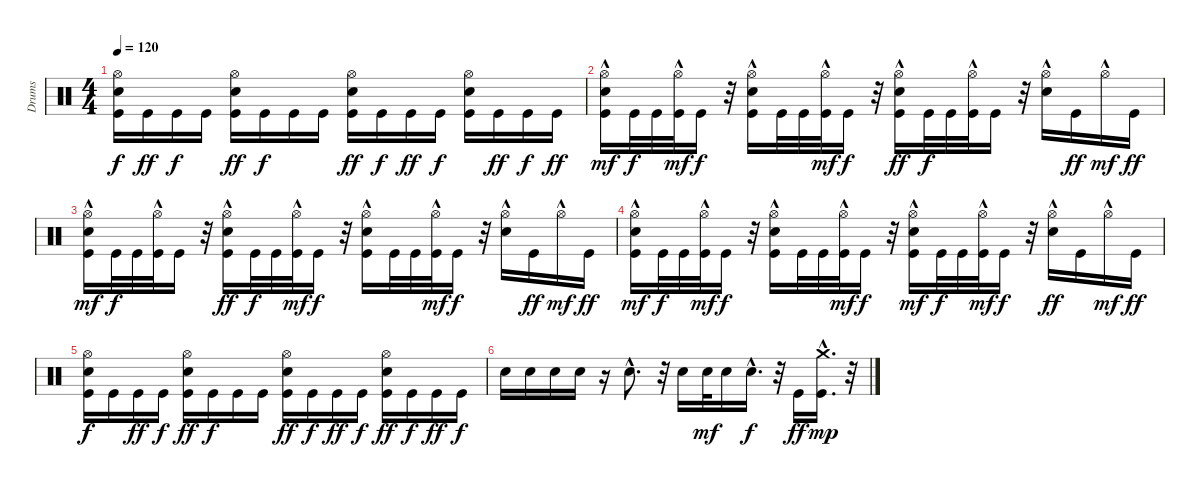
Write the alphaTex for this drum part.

\track ("Drums" "Drums") {instrument percussion}
\staff {score}
\articulation defaults
\ts (4 4)
\tempo 120
\clef neutral
\ks c
("Hi-Hat (open)" "Electric Snare (hit)" "Kick (hit)").16{dy f} "Kick (hit)".16{dy ff} "Kick (hit)".16{dy f} "Kick (hit)".16 ("Hi-Hat (open)" "Electric Snare (hit)" "Kick (hit)").16{dy ff} "Kick (hit)".16{dy f} "Kick (hit)".16 "Kick (hit)".16 ("Hi-Hat (open)" "Electric Snare (hit)" "Kick (hit)").16{dy ff} "Kick (hit)".16{dy f} "Kick (hit)".16{dy ff} "Kick (hit)".16{dy f} ("Hi-Hat (open)" "Electric Snare (hit)" "Kick (hit)").16 "Kick (hit)".16{dy ff} "Kick (hit)".16{dy f} "Kick (hit)".16{dy ff} |
("Hi-Hat (open)"{hac} "Electric Snare (hit)"{hac} "Kick (hit)").16{dy mf} "Kick (hit)".32{dy f} "Kick (hit)".32 ("Hi-Hat (open)"{hac} "Kick (hit)").32{dy mf} "Kick (hit)".16{dy f} r.32 ("Hi-Hat (open)"{hac} "Electric Snare (hit)"{hac} "Kick (hit)").16 "Kick (hit)".32 "Kick (hit)".32 ("Hi-Hat (open)"{hac} "Kick (hit)").32{dy mf} "Kick (hit)".16{dy f} r.32 ("Hi-Hat (open)"{hac} "Electric Snare (hit)"{hac} "Kick (hit)").16{dy ff} "Kick (hit)".32{dy f} "Kick (hit)".32 ("Hi-Hat (open)"{hac} "Kick (hit)").32 "Kick (hit)".16 r.32 ("Hi-Hat (open)"{hac} "Electric Snare (hit)"{hac}).16 "Kick (hit)".16{dy ff} "Hi-Hat (open)"{hac}.16{dy mf} "Kick (hit)".16{dy ff} |
("Hi-Hat (open)"{hac} "Electric Snare (hit)"{hac} "Kick (hit)").16{dy mf} "Kick (hit)".32{dy f} "Kick (hit)".32 ("Hi-Hat (open)"{hac} "Kick (hit)").32 "Kick (hit)".16 r.32 ("Hi-Hat (open)"{hac} "Electric Snare (hit)"{hac} "Kick (hit)").16{dy ff} "Kick (hit)".32{dy f} "Kick (hit)".32 ("Hi-Hat (open)"{hac} "Kick (hit)").32{dy mf} "Kick (hit)".16{dy f} r.32 ("Hi-Hat (open)"{hac} "Electric Snare (hit)"{hac} "Kick (hit)").16 "Kick (hit)".32 "Kick (hit)".32 ("Hi-Hat (open)"{hac} "Kick (hit)").32{dy mf} "Kick (hit)".16{dy f} r.32 ("Hi-Hat (open)"{hac} "Electric Snare (hit)"{hac}).16 "Kick (hit)".16{dy ff} "Hi-Hat (open)"{hac}.16{dy mf} "Kick (hit)".16{dy ff} |
("Hi-Hat (open)"{hac} "Electric Snare (hit)"{hac} "Kick (hit)").16{dy mf} "Kick (hit)".32{dy f} "Kick (hit)".32 ("Hi-Hat (open)"{hac} "Kick (hit)").32{dy mf} "Kick (hit)".16{dy f} r.32 ("Hi-Hat (open)"{hac} "Electric Snare (hit)"{hac} "Kick (hit)").16 "Kick (hit)".32 "Kick (hit)".32 ("Hi-Hat (open)"{hac} "Kick (hit)").32{dy mf} "Kick (hit)".16{dy f} r.32 ("Hi-Hat (open)"{hac} "Electric Snare (hit)"{hac} "Kick (hit)").16{dy mf} "Kick (hit)".32{dy f} "Kick (hit)".32 ("Hi-Hat (open)"{hac} "Kick (hit)").32{dy mf} "Kick (hit)".16{dy f} r.32 ("Hi-Hat (open)"{hac} "Electric Snare (hit)"{hac}).16{dy ff} "Kick (hit)".16 "Hi-Hat (open)"{hac}.16{dy mf} "Kick (hit)".16{dy ff} |
("Hi-Hat (open)" "Electric Snare (hit)" "Kick (hit)").16{dy f} "Kick (hit)".16 "Kick (hit)".16{dy ff} "Kick (hit)".16{dy f} ("Hi-Hat (open)" "Electric Snare (hit)" "Kick (hit)").16{dy ff} "Kick (hit)".16{dy f} "Kick (hit)".16 "Kick (hit)".16 ("Hi-Hat (open)" "Electric Snare (hit)" "Kick (hit)").16{dy ff} "Kick (hit)".16{dy f} "Kick (hit)".16{dy ff} "Kick (hit)".16{dy f} ("Hi-Hat (open)" "Electric Snare (hit)" "Kick (hit)").16{dy ff} "Kick (hit)".16{dy f} "Kick (hit)".16{dy ff} "Kick (hit)".16{dy f} |
"Electric Snare (hit)".16 "Electric Snare (hit)".16 "Electric Snare (hit)".16 "Electric Snare (hit)".16 r.16 "Electric Snare (hit)"{hac}.8{d} r.32 "Electric Snare (hit)".16 "Electric Snare (hit)".32{dy mf} "Electric Snare (hit)".16 "Electric Snare (hit)"{hac}.16{d dy f} r.32 "Kick (hit)".16{dy ff} ("Kick (hit)"{hac} "Crash medium (hit)"{hac}).16{d dy mp} r.32
